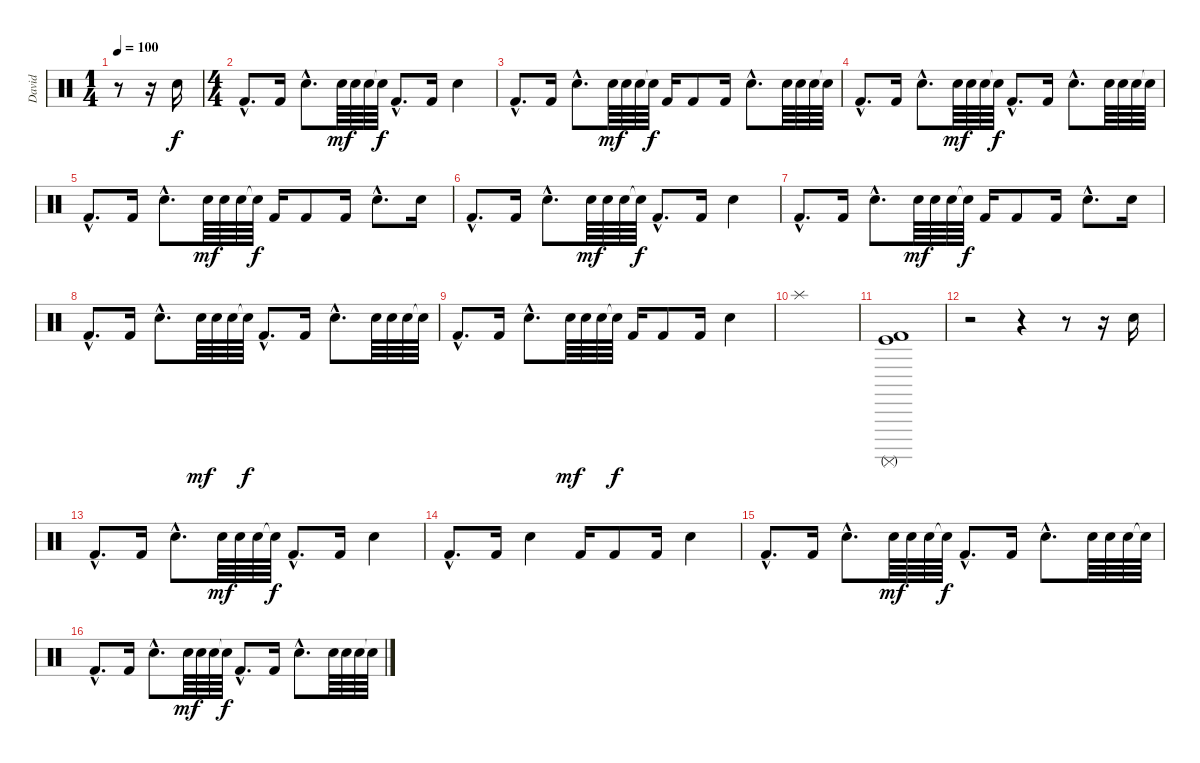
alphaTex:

\track ("David" "David") {instrument percussion}
\staff {score}
\articulation defaults
\ts (1 4)
\tempo 100
\clef neutral
\ks c
r.8{dy f} r.16 "Snare (hit) 2".16 |
\ts (4 4)
"Kick (hit) 2"{hac}.8{d} "Kick (hit) 2".16 "Snare (hit) 2"{hac}.8{d} "Snare (hit) 2".64{dy mf} "Snare (hit) 2".64 "Snare (hit) 2".64 "Snare (hit)"{t}.64{dy f} "Kick (hit) 2"{hac}.8{d} "Kick (hit) 2".16 "Snare (hit) 2".4 |
"Kick (hit) 2"{hac}.8{d} "Kick (hit) 2".16 "Snare (hit) 2"{hac}.8{d} "Snare (hit) 2".64{dy mf} "Snare (hit) 2".64 "Snare (hit) 2".64 "Snare (hit)"{t}.64{dy f} "Kick (hit) 2".16 "Kick (hit) 2".8 "Kick (hit) 2".16 "Snare (hit) 2"{hac}.8{d} "Snare (hit) 2".64 "Snare (hit) 2".64 "Snare (hit) 2".64 "Snare (hit)"{t}.64 |
"Kick (hit) 2"{hac}.8{d} "Kick (hit) 2".16 "Snare (hit) 2"{hac}.8{d} "Snare (hit) 2".64{dy mf} "Snare (hit) 2".64 "Snare (hit) 2".64 "Snare (hit)"{t}.64{dy f} "Kick (hit) 2"{hac}.8{d} "Kick (hit) 2".16 "Snare (hit) 2"{hac}.8{d} "Snare (hit) 2".64 "Snare (hit) 2".64 "Snare (hit) 2".64 "Snare (hit)"{t}.64 |
"Kick (hit) 2"{hac}.8{d} "Kick (hit) 2".16 "Snare (hit) 2"{hac}.8{d} "Snare (hit) 2".64{dy mf} "Snare (hit) 2".64 "Snare (hit) 2".64 "Snare (hit)"{t}.64{dy f} "Kick (hit) 2".16 "Kick (hit) 2".8 "Kick (hit) 2".16 "Snare (hit) 2"{hac}.8{d} "Snare (hit) 2".16 |
"Kick (hit) 2"{hac}.8{d} "Kick (hit) 2".16 "Snare (hit) 2"{hac}.8{d} "Snare (hit) 2".64{dy mf} "Snare (hit) 2".64 "Snare (hit) 2".64 "Snare (hit)"{t}.64{dy f} "Kick (hit) 2"{hac}.8{d} "Kick (hit) 2".16 "Snare (hit) 2".4 |
"Kick (hit) 2"{hac}.8{d} "Kick (hit) 2".16 "Snare (hit) 2"{hac}.8{d} "Snare (hit) 2".64{dy mf} "Snare (hit) 2".64 "Snare (hit) 2".64 "Snare (hit)"{t}.64{dy f} "Kick (hit) 2".16 "Kick (hit) 2".8 "Kick (hit) 2".16 "Snare (hit) 2"{hac}.8{d} "Snare (hit) 2".16 |
"Kick (hit) 2"{hac}.8{d} "Kick (hit) 2".16 "Snare (hit) 2"{hac}.8{d} "Snare (hit) 2".64{dy mf} "Snare (hit) 2".64 "Snare (hit) 2".64 "Snare (hit)"{t}.64{dy f} "Kick (hit) 2"{hac}.8{d} "Kick (hit) 2".16 "Snare (hit) 2"{hac}.8{d} "Snare (hit) 2".64 "Snare (hit) 2".64 "Snare (hit) 2".64 "Snare (hit)"{t}.64 |
"Kick (hit) 2"{hac}.8{d} "Kick (hit) 2".16 "Snare (hit) 2"{hac}.8{d} "Snare (hit) 2".64{dy mf} "Snare (hit) 2".64 "Snare (hit) 2".64 "Snare (hit)"{t}.64{dy f} "Kick (hit) 2".16 "Kick (hit) 2".8 "Kick (hit) 2".16 "Snare (hit) 2".4 |
"Splash (hit)".1 |
("Kick (hit)" "Kick (hit) 2" "Surdo (mute)").1 |
r.2 r.4 r.8 r.16 "Snare (hit) 2".16 |
"Kick (hit) 2"{hac}.8{d} "Kick (hit) 2".16 "Snare (hit) 2"{hac}.8{d} "Snare (hit) 2".64{dy mf} "Snare (hit) 2".64 "Snare (hit) 2".64 "Snare (hit)"{t}.64{dy f} "Kick (hit) 2"{hac}.8{d} "Kick (hit) 2".16 "Snare (hit) 2".4 |
"Kick (hit) 2"{hac}.8{d} "Kick (hit) 2".16 "Snare (hit) 2".4 "Kick (hit) 2".16 "Kick (hit) 2".8 "Kick (hit) 2".16 "Snare (hit) 2".4 |
"Kick (hit) 2"{hac}.8{d} "Kick (hit) 2".16 "Snare (hit) 2"{hac}.8{d} "Snare (hit) 2".64{dy mf} "Snare (hit) 2".64 "Snare (hit) 2".64 "Snare (hit)"{t}.64{dy f} "Kick (hit) 2"{hac}.8{d} "Kick (hit) 2".16 "Snare (hit) 2"{hac}.8{d} "Snare (hit) 2".64 "Snare (hit) 2".64 "Snare (hit) 2".64 "Snare (hit)"{t}.64 |
"Kick (hit) 2"{hac}.8{d} "Kick (hit) 2".16 "Snare (hit) 2"{hac}.8{d} "Snare (hit) 2".64{dy mf} "Snare (hit) 2".64 "Snare (hit) 2".64 "Snare (hit)"{t}.64{dy f} "Kick (hit) 2"{hac}.8{d} "Kick (hit) 2".16 "Snare (hit) 2"{hac}.8{d} "Snare (hit) 2".64 "Snare (hit) 2".64 "Snare (hit) 2".64 "Snare (hit)"{t}.64
